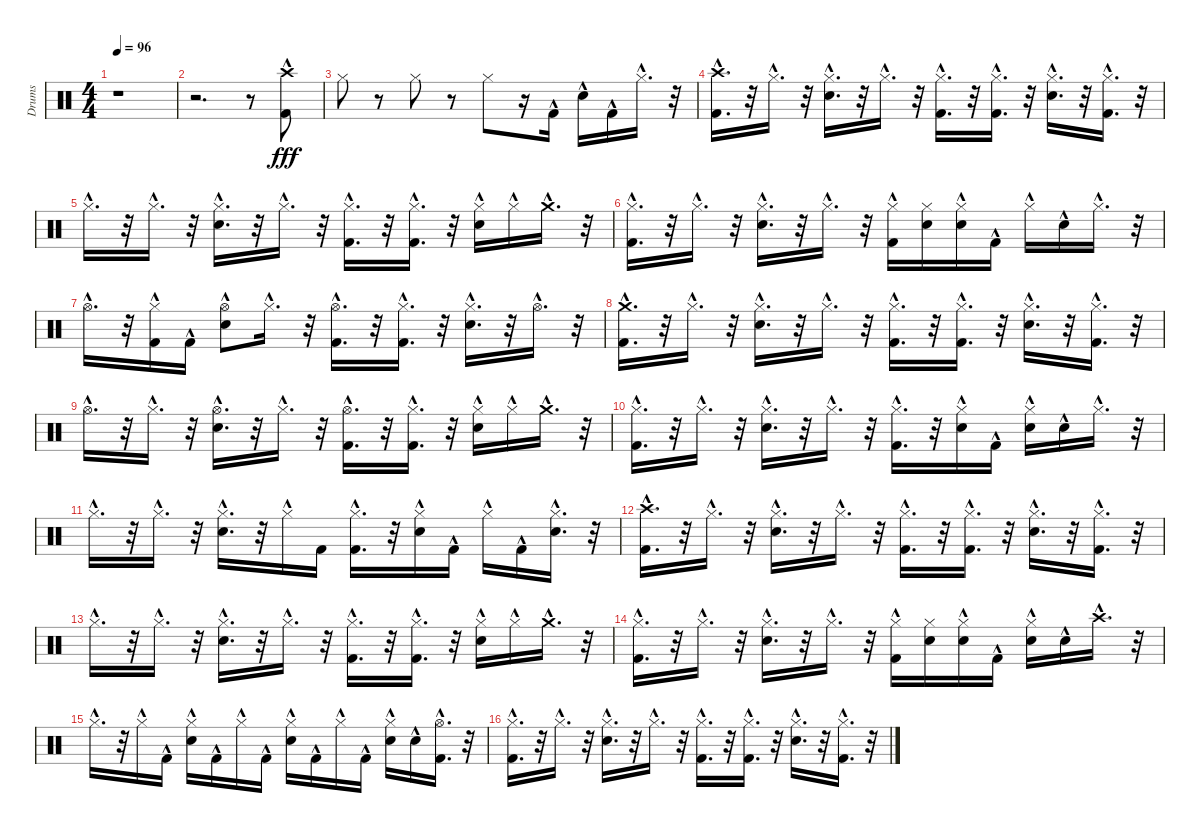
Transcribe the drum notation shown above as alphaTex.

\track ("Drums" "Drums") {instrument percussion}
\staff {score}
\articulation defaults
\ts (4 4)
\tempo 96
\clef neutral
\ks c
r.1{dy fff} |
r.2{d} r.8 ("Crash high (hit)" "Kick (hit) 2"{hac}).8 |
"Hi-Hat (closed)".8 r.8 "Hi-Hat (closed)".8 r.8 "Hi-Hat (closed)".8 r.16 "Kick (hit) 2"{hac}.16 "Snare (hit) 2"{hac}.16 "Kick (hit) 2"{hac}.16 "Hi-Hat (closed)"{hac}.16{d} r.32 |
("Kick (hit) 2"{hac} "Crash high (hit)"{hac}).16{d} r.32 "Hi-Hat (closed)"{hac}.16{d} r.32 ("Hi-Hat (closed)"{hac} "Snare (hit) 2"{hac}).16{d} r.32 "Hi-Hat (closed)"{hac}.16{d} r.32 ("Hi-Hat (closed)"{hac} "Kick (hit) 2"{hac}).16{d} r.32 ("Hi-Hat (closed)"{hac} "Kick (hit) 2"{hac}).16{d} r.32 ("Hi-Hat (closed)"{hac} "Snare (hit) 2"{hac}).16{d} r.32 ("Hi-Hat (closed)"{hac} "Kick (hit) 2"{hac}).16{d} r.32 |
"Hi-Hat (closed)"{hac}.16{d} r.32 "Hi-Hat (closed)"{hac}.16{d} r.32 ("Snare (hit) 2"{hac} "Hi-Hat (closed)"{hac}).16{d} r.32 "Hi-Hat (closed)"{hac}.16{d} r.32 ("Kick (hit) 2"{hac} "Hi-Hat (closed)"{hac}).16{d} r.32 ("Hi-Hat (closed)"{hac} "Kick (hit) 2"{hac}).16{d} r.32 ("Hi-Hat (closed)" "Snare (hit) 2"{hac}).16 "Hi-Hat (closed)"{hac}.16 "Crash medium (hit)"{hac}.16{d} r.32 |
("Hi-Hat (closed)"{hac} "Kick (hit) 2"{hac}).16{d} r.32 "Hi-Hat (closed)"{hac}.16{d} r.32 ("Hi-Hat (closed)"{hac} "Snare (hit) 2"{hac}).16{d} r.32 "Hi-Hat (closed)"{hac}.16{d} r.32 ("Hi-Hat (closed)" "Kick (hit) 2"{hac}).16 ("Snare (hit) 2" "Hi-Hat (closed)").16 ("Hi-Hat (closed)"{hac} "Snare (hit) 2"{hac}).16 "Kick (hit) 2"{hac}.16 "Hi-Hat (closed)"{hac}.16 "Snare (hit) 2"{hac}.16 "Hi-Hat (closed)"{hac}.16{d} r.32 |
"Hi-Hat (open)"{hac}.16{d} r.32 ("Hi-Hat (closed)"{hac} "Kick (hit) 2").16 "Kick (hit) 2"{hac}.16 ("Snare (hit) 2"{hac} "Hi-Hat (open)"{hac}).8 "Hi-Hat (closed)"{hac}.16{d} r.32 ("Kick (hit) 2"{hac} "Hi-Hat (open)"{hac}).16{d} r.32 ("Hi-Hat (closed)"{hac} "Kick (hit) 2"{hac}).16{d} r.32 ("Hi-Hat (closed)"{hac} "Snare (hit) 2"{hac}).16{d} r.32 "Hi-Hat (open)"{hac}.16{d} r.32 |
("Kick (hit) 2"{hac} "Crash medium (hit)"{hac}).16{d} r.32 "Hi-Hat (closed)"{hac}.16{d} r.32 ("Hi-Hat (closed)"{hac} "Snare (hit) 2"{hac}).16{d} r.32 "Hi-Hat (closed)"{hac}.16{d} r.32 ("Hi-Hat (closed)"{hac} "Kick (hit) 2"{hac}).16{d} r.32 ("Hi-Hat (closed)"{hac} "Kick (hit) 2"{hac}).16{d} r.32 ("Hi-Hat (closed)"{hac} "Snare (hit) 2"{hac}).16{d} r.32 ("Hi-Hat (closed)"{hac} "Kick (hit) 2"{hac}).16{d} r.32 |
"Hi-Hat (open)"{hac}.16{d} r.32 "Hi-Hat (closed)"{hac}.16{d} r.32 ("Snare (hit) 2"{hac} "Hi-Hat (open)"{hac}).16{d} r.32 "Hi-Hat (closed)"{hac}.16{d} r.32 ("Kick (hit) 2"{hac} "Hi-Hat (open)"{hac}).16{d} r.32 ("Hi-Hat (closed)"{hac} "Kick (hit) 2"{hac}).16{d} r.32 ("Hi-Hat (closed)" "Snare (hit) 2"{hac}).16 "Hi-Hat (closed)"{hac}.16 "Crash medium (hit)"{hac}.16{d} r.32 |
("Hi-Hat (closed)"{hac} "Kick (hit) 2"{hac}).16{d} r.32 "Hi-Hat (closed)"{hac}.16{d} r.32 ("Hi-Hat (closed)"{hac} "Snare (hit) 2"{hac}).16{d} r.32 "Hi-Hat (closed)"{hac}.16{d} r.32 ("Hi-Hat (closed)"{hac} "Kick (hit) 2"{hac}).16{d} r.32 ("Hi-Hat (closed)"{hac} "Snare (hit) 2"{hac}).16 "Kick (hit) 2"{hac}.16 ("Hi-Hat (closed)"{hac} "Snare (hit) 2").16 "Snare (hit) 2"{hac}.16 "Hi-Hat (closed)"{hac}.16{d} r.32 |
"Hi-Hat (closed)"{hac}.16{d} r.32 "Hi-Hat (closed)"{hac}.16{d} r.32 ("Hi-Hat (closed)"{hac} "Snare (hit) 2"{hac}).16{d} r.32 "Hi-Hat (closed)"{hac}.16 "Kick (hit) 2".16 ("Hi-Hat (closed)"{hac} "Kick (hit) 2"{hac}).16{d} r.32 ("Hi-Hat (closed)"{hac} "Snare (hit) 2"{hac}).16 "Kick (hit) 2"{hac}.16 "Hi-Hat (closed)"{hac}.16 "Kick (hit) 2"{hac}.16 ("Hi-Hat (closed)"{hac} "Snare (hit) 2"{hac}).16{d} r.32 |
("Kick (hit) 2"{hac} "Crash high (hit)"{hac}).16{d} r.32 "Hi-Hat (closed)"{hac}.16{d} r.32 ("Hi-Hat (closed)"{hac} "Snare (hit) 2"{hac}).16{d} r.32 "Hi-Hat (closed)"{hac}.16{d} r.32 ("Hi-Hat (closed)"{hac} "Kick (hit) 2"{hac}).16{d} r.32 ("Hi-Hat (closed)"{hac} "Kick (hit) 2"{hac}).16{d} r.32 ("Hi-Hat (closed)"{hac} "Snare (hit) 2"{hac}).16{d} r.32 ("Hi-Hat (closed)"{hac} "Kick (hit) 2"{hac}).16{d} r.32 |
"Hi-Hat (closed)"{hac}.16{d} r.32 "Hi-Hat (closed)"{hac}.16{d} r.32 ("Hi-Hat (closed)"{hac} "Snare (hit) 2"{hac}).16{d} r.32 "Hi-Hat (closed)"{hac}.16{d} r.32 ("Hi-Hat (closed)"{hac} "Kick (hit) 2"{hac}).16{d} r.32 ("Hi-Hat (closed)"{hac} "Kick (hit) 2"{hac}).16{d} r.32 ("Hi-Hat (closed)" "Snare (hit) 2"{hac}).16 "Hi-Hat (closed)"{hac}.16 "Crash medium (hit)"{hac}.16{d} r.32 |
("Hi-Hat (closed)"{hac} "Kick (hit) 2"{hac}).16{d} r.32 "Hi-Hat (closed)"{hac}.16{d} r.32 ("Hi-Hat (closed)"{hac} "Snare (hit) 2"{hac}).16{d} r.32 "Hi-Hat (closed)"{hac}.16{d} r.32 ("Hi-Hat (closed)" "Kick (hit) 2"{hac}).16 ("Snare (hit) 2" "Hi-Hat (closed)").16 ("Hi-Hat (closed)"{hac} "Snare (hit) 2"{hac}).16 "Kick (hit) 2"{hac}.16 ("Hi-Hat (closed)"{hac} "Snare (hit) 2").16 "Snare (hit) 2"{hac}.16 "Crash high (hit)"{hac}.16{d} r.32 |
"Hi-Hat (closed)"{hac}.16{d} r.32 "Hi-Hat (closed)"{hac}.16 "Kick (hit) 2"{hac}.16 ("Hi-Hat (closed)" "Snare (hit) 2"{hac}).16 "Kick (hit) 2"{hac}.16 "Hi-Hat (closed)"{hac}.16 "Kick (hit) 2"{hac}.16 ("Hi-Hat (closed)"{hac} "Snare (hit) 2"{hac}).16 "Kick (hit) 2"{hac}.16 "Hi-Hat (closed)"{hac}.16 "Kick (hit) 2"{hac}.16 ("Hi-Hat (closed)"{hac} "Snare (hit) 2").16 "Snare (hit) 2"{hac}.16 ("Hi-Hat (open)"{hac} "Kick (hit) 2"{hac}).16{d} r.32 |
("Hi-Hat (closed)"{hac} "Kick (hit) 2"{hac}).16{d} r.32 "Hi-Hat (closed)"{hac}.16{d} r.32 ("Hi-Hat (closed)"{hac} "Snare (hit) 2"{hac}).16{d} r.32 "Hi-Hat (closed)"{hac}.16{d} r.32 ("Hi-Hat (closed)"{hac} "Kick (hit) 2"{hac}).16{d} r.32 ("Hi-Hat (closed)"{hac} "Kick (hit) 2"{hac}).16{d} r.32 ("Hi-Hat (closed)"{hac} "Snare (hit) 2"{hac}).16{d} r.32 ("Hi-Hat (closed)"{hac} "Kick (hit) 2"{hac}).16{d} r.32
